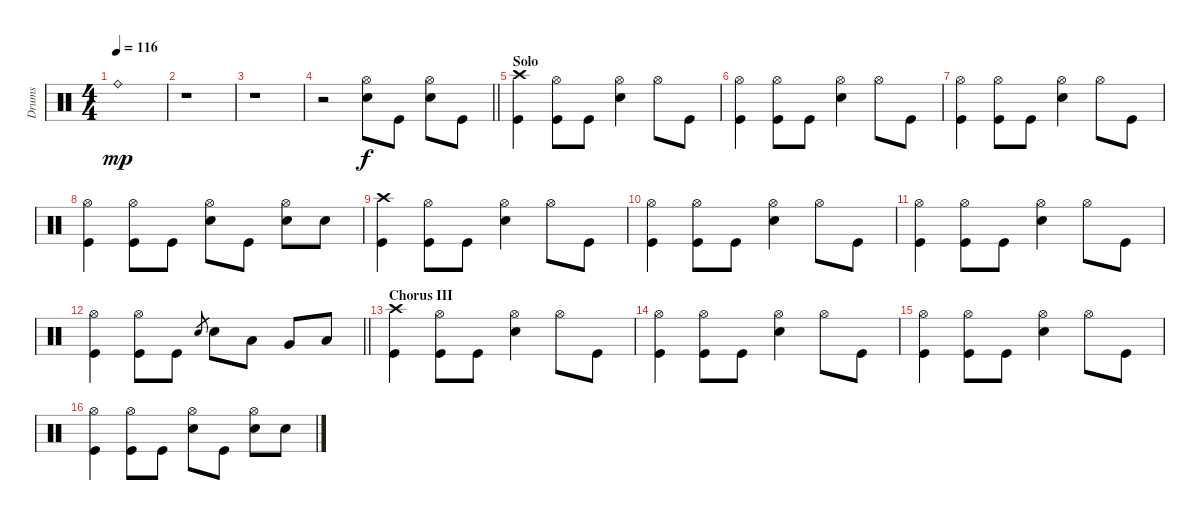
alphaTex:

\track ("Drums" "Drums") {instrument percussion}
\staff {score}
\articulation defaults
\ts (4 4)
\tempo 116
\clef neutral
\ks c "Ride (bell)".1{dy mp}
|
r.1 |
r.1 |
\barLineRight lightlight
r.2 ("Hi-Hat (open)" "Electric Snare (hit)").8{dy f} "Kick (hit)".8 ("Hi-Hat (open)" "Electric Snare (hit)").8 "Kick (hit)".8 |
\section ("" "Solo")
("Crash high (hit)" "Kick (hit)").4 ("Hi-Hat (open)" "Kick (hit)").8 "Kick (hit)".8 ("Hi-Hat (open)" "Electric Snare (hit)").4 "Hi-Hat (open)".8 "Kick (hit)".8 |
("Hi-Hat (open)" "Kick (hit)").4 ("Hi-Hat (open)" "Kick (hit)").8 "Kick (hit)".8 ("Hi-Hat (open)" "Electric Snare (hit)").4 "Hi-Hat (open)".8 "Kick (hit)".8 |
("Hi-Hat (open)" "Kick (hit)").4 ("Hi-Hat (open)" "Kick (hit)").8 "Kick (hit)".8 ("Hi-Hat (open)" "Electric Snare (hit)").4 "Hi-Hat (open)".8 "Kick (hit)".8 |
("Hi-Hat (open)" "Kick (hit)").4 ("Hi-Hat (open)" "Kick (hit)").8 "Kick (hit)".8 ("Hi-Hat (open)" "Electric Snare (hit)").8 "Kick (hit)".8 ("Hi-Hat (open)" "Electric Snare (hit)").8 "Electric Snare (hit)".8 |
("Crash high (hit)" "Kick (hit)").4 ("Hi-Hat (open)" "Kick (hit)").8 "Kick (hit)".8 ("Hi-Hat (open)" "Electric Snare (hit)").4 "Hi-Hat (open)".8 "Kick (hit)".8 |
("Hi-Hat (open)" "Kick (hit)").4 ("Hi-Hat (open)" "Kick (hit)").8 "Kick (hit)".8 ("Hi-Hat (open)" "Electric Snare (hit)").4 "Hi-Hat (open)".8 "Kick (hit)".8 |
("Hi-Hat (open)" "Kick (hit)").4 ("Hi-Hat (open)" "Kick (hit)").8 "Kick (hit)".8 ("Hi-Hat (open)" "Electric Snare (hit)").4 "Hi-Hat (open)".8 "Kick (hit)".8 |
\barLineRight lightlight
("Hi-Hat (open)" "Kick (hit)").4 ("Hi-Hat (open)" "Kick (hit)").8 "Kick (hit)".8 "Electric Snare (hit)".8{gr} "Electric Snare (hit)".8 "Low Tom (hit)".8 "Very Low Tom (hit)".8 "Low Floor Tom (hit)".8 |
\section ("" "Chorus III")
("Crash high (hit)" "Kick (hit)").4 ("Hi-Hat (open)" "Kick (hit)").8 "Kick (hit)".8 ("Hi-Hat (open)" "Electric Snare (hit)").4 "Hi-Hat (open)".8 "Kick (hit)".8 |
("Hi-Hat (open)" "Kick (hit)").4 ("Hi-Hat (open)" "Kick (hit)").8 "Kick (hit)".8 ("Hi-Hat (open)" "Electric Snare (hit)").4 "Hi-Hat (open)".8 "Kick (hit)".8 |
("Hi-Hat (open)" "Kick (hit)").4 ("Hi-Hat (open)" "Kick (hit)").8 "Kick (hit)".8 ("Hi-Hat (open)" "Electric Snare (hit)").4 "Hi-Hat (open)".8 "Kick (hit)".8 |
("Hi-Hat (open)" "Kick (hit)").4 ("Hi-Hat (open)" "Kick (hit)").8 "Kick (hit)".8 ("Hi-Hat (open)" "Electric Snare (hit)").8 "Kick (hit)".8 ("Hi-Hat (open)" "Electric Snare (hit)").8 "Electric Snare (hit)".8
